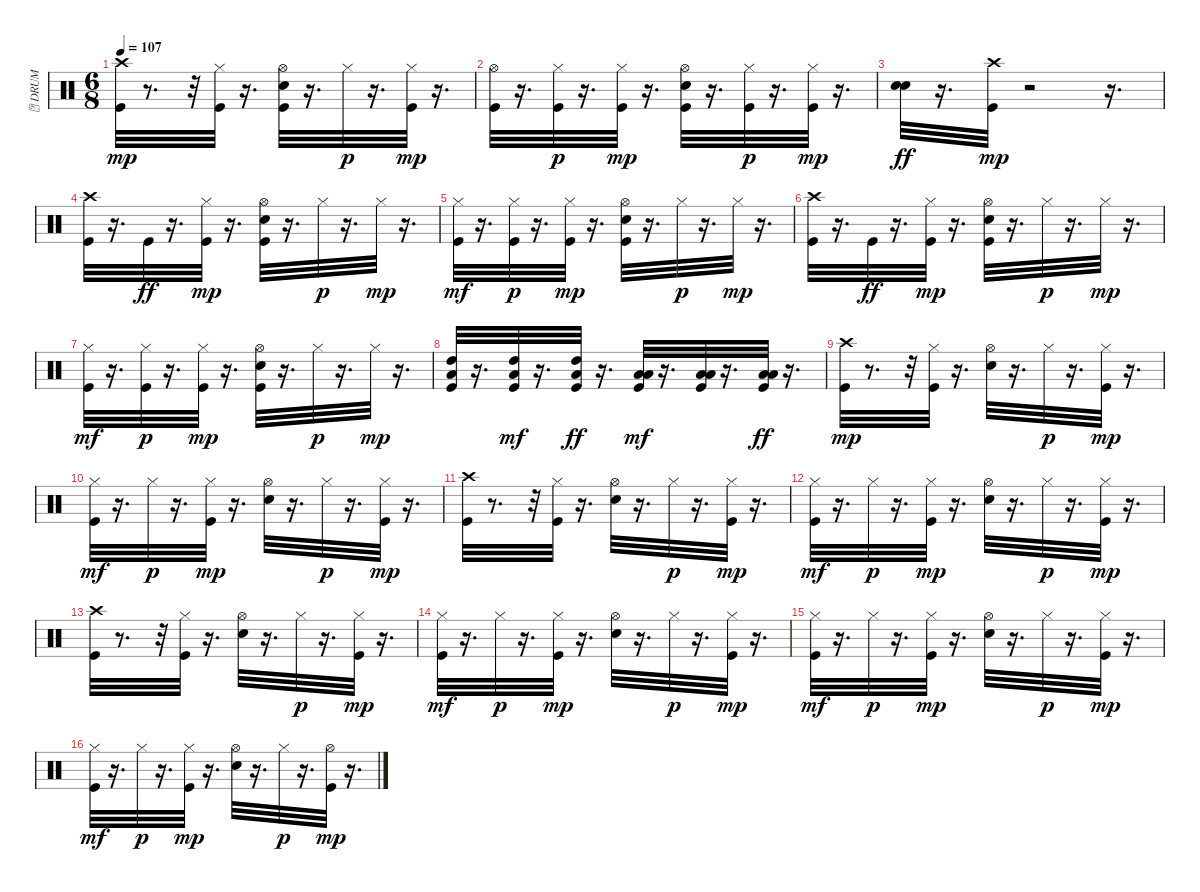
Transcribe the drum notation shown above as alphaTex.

\track ("\t DRUM" "\t DRUM") {instrument percussion}
\staff {score}
\articulation defaults
\ts (6 8)
\tempo 107
\clef neutral
\ks c
("Kick (hit)" "Crash high (hit)").32{dy mp} r.8{d} r.32 ("Kick (hit)" "Hi-Hat (closed)").32 r.16{d} ("Kick (hit)" "Electric Snare (hit)" "Hi-Hat (open)").32 r.16{d} "Hi-Hat (closed)".32{dy p} r.16{d} ("Kick (hit)" "Hi-Hat (closed)").32{dy mp} r.16{d} |
("Kick (hit)" "Hi-Hat (open)").32 r.16{d} ("Kick (hit)" "Hi-Hat (closed)").32{dy p} r.16{d} ("Kick (hit)" "Hi-Hat (closed)").32{dy mp} r.16{d} ("Kick (hit)" "Electric Snare (hit)" "Hi-Hat (open)").32 r.16{d} ("Kick (hit)" "Hi-Hat (closed)").32{dy p} r.16{d} ("Kick (hit)" "Hi-Hat (closed)").32{dy mp} r.16{d} |
("Electric Snare (hit)" "Electric Snare (hit)").32{dy ff} r.16{d} ("Kick (hit)" "Crash high (hit)").32{dy mp} r.2 r.16{d} |
("Kick (hit)" "Crash high (hit)").32 r.16{d} "Kick (hit)".32{dy ff} r.16{d} ("Kick (hit)" "Hi-Hat (closed)").32{dy mp} r.16{d} ("Kick (hit)" "Electric Snare (hit)" "Hi-Hat (open)").32 r.16{d} "Hi-Hat (closed)".32{dy p} r.16{d} "Hi-Hat (closed)".32{dy mp} r.16{d} |
("Kick (hit)" "Hi-Hat (closed)").32{dy mf} r.16{d} ("Kick (hit)" "Hi-Hat (closed)").32{dy p} r.16{d} ("Kick (hit)" "Hi-Hat (closed)").32{dy mp} r.16{d} ("Kick (hit)" "Electric Snare (hit)" "Hi-Hat (open)").32 r.16{d} "Hi-Hat (closed)".32{dy p} r.16{d} "Hi-Hat (closed)".32{dy mp} r.16{d} |
("Kick (hit)" "Crash high (hit)").32 r.16{d} "Kick (hit)".32{dy ff} r.16{d} ("Kick (hit)" "Hi-Hat (closed)").32{dy mp} r.16{d} ("Kick (hit)" "Electric Snare (hit)" "Hi-Hat (open)").32 r.16{d} "Hi-Hat (closed)".32{dy p} r.16{d} "Hi-Hat (closed)".32{dy mp} r.16{d} |
("Kick (hit)" "Hi-Hat (closed)").32{dy mf} r.16{d} ("Kick (hit)" "Hi-Hat (closed)").32{dy p} r.16{d} ("Kick (hit)" "Hi-Hat (closed)").32{dy mp} r.16{d} ("Kick (hit)" "Electric Snare (hit)" "Hi-Hat (open)").32 r.16{d} "Hi-Hat (closed)".32{dy p} r.16{d} "Hi-Hat (closed)".32{dy mp} r.16{d} |
("Kick (hit)" "Low Tom (hit)" "High Tom (hit)").32 r.16{d} ("Kick (hit)" "Low Tom (hit)" "High Tom (hit)").32{dy mf} r.16{d} ("Kick (hit)" "Low Tom (hit)" "High Tom (hit)").32{dy ff} r.16{d} ("Kick (hit)" "Low Floor Tom (hit)" "Low Tom (hit)").32{dy mf} r.16{d} ("Kick (hit)" "Low Floor Tom (hit)" "Low Tom (hit)").32 r.16{d} ("Kick (hit)" "Low Floor Tom (hit)" "Low Tom (hit)").32{dy ff} r.16{d} |
("Kick (hit)" "Crash high (hit)").32{dy mp} r.8{d} r.32 ("Kick (hit)" "Hi-Hat (closed)").32 r.16{d} ("Electric Snare (hit)" "Hi-Hat (open)").32 r.16{d} "Hi-Hat (closed)".32{dy p} r.16{d} ("Kick (hit)" "Hi-Hat (closed)").32{dy mp} r.16{d} |
("Kick (hit)" "Hi-Hat (closed)").32{dy mf} r.16{d} "Hi-Hat (closed)".32{dy p} r.16{d} ("Kick (hit)" "Hi-Hat (closed)").32{dy mp} r.16{d} ("Electric Snare (hit)" "Hi-Hat (open)").32 r.16{d} "Hi-Hat (closed)".32{dy p} r.16{d} ("Kick (hit)" "Hi-Hat (closed)").32{dy mp} r.16{d} |
("Kick (hit)" "Crash high (hit)").32 r.8{d} r.32 ("Kick (hit)" "Hi-Hat (closed)").32 r.16{d} ("Electric Snare (hit)" "Hi-Hat (open)").32 r.16{d} "Hi-Hat (closed)".32{dy p} r.16{d} ("Kick (hit)" "Hi-Hat (closed)").32{dy mp} r.16{d} |
("Kick (hit)" "Hi-Hat (closed)").32{dy mf} r.16{d} "Hi-Hat (closed)".32{dy p} r.16{d} ("Kick (hit)" "Hi-Hat (closed)").32{dy mp} r.16{d} ("Electric Snare (hit)" "Hi-Hat (open)").32 r.16{d} "Hi-Hat (closed)".32{dy p} r.16{d} ("Kick (hit)" "Hi-Hat (closed)").32{dy mp} r.16{d} |
("Kick (hit)" "Crash high (hit)").32 r.8{d} r.32 ("Kick (hit)" "Hi-Hat (closed)").32 r.16{d} ("Electric Snare (hit)" "Hi-Hat (open)").32 r.16{d} "Hi-Hat (closed)".32{dy p} r.16{d} ("Kick (hit)" "Hi-Hat (closed)").32{dy mp} r.16{d} |
("Kick (hit)" "Hi-Hat (closed)").32{dy mf} r.16{d} "Hi-Hat (closed)".32{dy p} r.16{d} ("Kick (hit)" "Hi-Hat (closed)").32{dy mp} r.16{d} ("Electric Snare (hit)" "Hi-Hat (open)").32 r.16{d} "Hi-Hat (closed)".32{dy p} r.16{d} ("Kick (hit)" "Hi-Hat (closed)").32{dy mp} r.16{d} |
("Kick (hit)" "Hi-Hat (closed)").32{dy mf} r.16{d} "Hi-Hat (closed)".32{dy p} r.16{d} ("Kick (hit)" "Hi-Hat (closed)").32{dy mp} r.16{d} ("Electric Snare (hit)" "Hi-Hat (open)").32 r.16{d} "Hi-Hat (closed)".32{dy p} r.16{d} ("Kick (hit)" "Hi-Hat (closed)").32{dy mp} r.16{d} |
("Kick (hit)" "Hi-Hat (closed)").32{dy mf} r.16{d} "Hi-Hat (closed)".32{dy p} r.16{d} ("Kick (hit)" "Hi-Hat (closed)").32{dy mp} r.16{d} ("Electric Snare (hit)" "Hi-Hat (open)").32 r.16{d} "Hi-Hat (closed)".32{dy p} r.16{d} ("Kick (hit)" "Hi-Hat (open)").32{dy mp} r.16{d}
